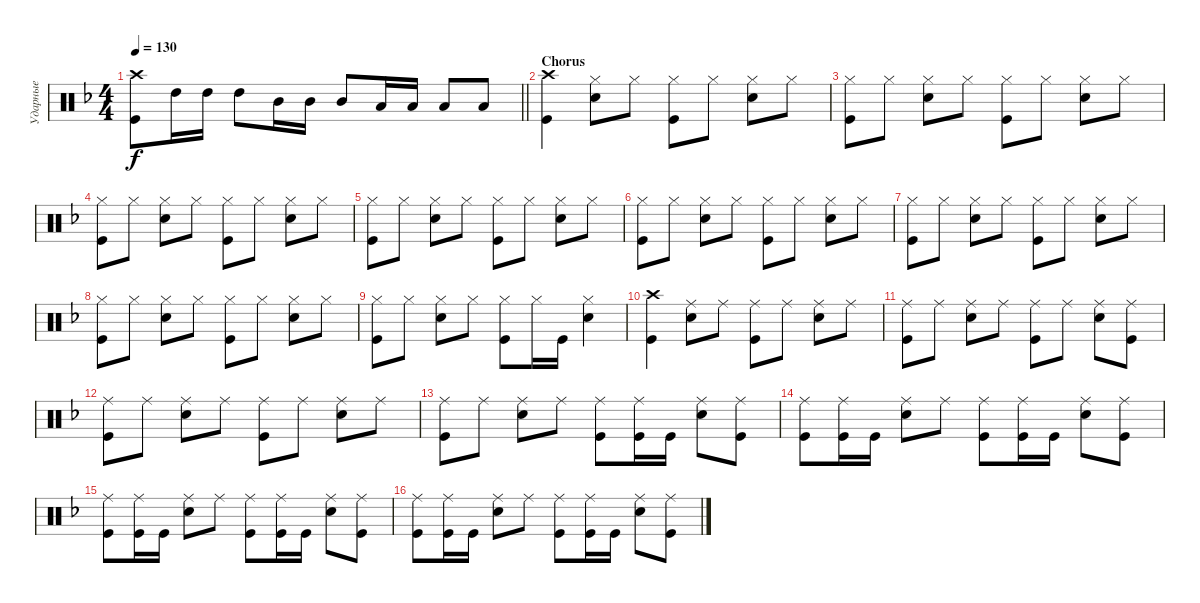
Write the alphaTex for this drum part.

\track ("Ударные" "Ударные") {instrument percussion}
\staff {score}
\articulation defaults
\ts (4 4)
\tempo 130
\clef neutral
\barLineRight lightlight
\ks dminor
("Kick (hit)" "Crash high (hit)").8{dy f} "High Tom (hit)".16 "High Tom (hit)".16 "High Tom (hit)".8 "Mid Tom (hit)".16 "Mid Tom (hit)".16 "Mid Tom (hit)".8 "Low Tom (hit)".16 "Low Tom (hit)".16 "Low Tom (hit)".8 "Low Tom (hit)".8 |
\section ("" "Chorus")
("Kick (hit)" "Crash high (hit)").4 ("Hi-Hat (closed)" "Snare (hit) 2").8 "Hi-Hat (closed)".8 ("Hi-Hat (closed)" "Kick (hit)").8 "Hi-Hat (closed)".8 ("Hi-Hat (closed)" "Snare (hit) 2").8 "Hi-Hat (closed)".8 |
("Kick (hit)" "Hi-Hat (closed)").8 "Hi-Hat (closed)".8 ("Hi-Hat (closed)" "Snare (hit) 2").8 "Hi-Hat (closed)".8 ("Hi-Hat (closed)" "Kick (hit)").8 "Hi-Hat (closed)".8 ("Hi-Hat (closed)" "Snare (hit) 2").8 "Hi-Hat (closed)".8 |
("Kick (hit)" "Hi-Hat (closed)").8 "Hi-Hat (closed)".8 ("Hi-Hat (closed)" "Snare (hit) 2").8 "Hi-Hat (closed)".8 ("Hi-Hat (closed)" "Kick (hit)").8 "Hi-Hat (closed)".8 ("Hi-Hat (closed)" "Snare (hit) 2").8 "Hi-Hat (closed)".8 |
("Kick (hit)" "Hi-Hat (closed)").8 "Hi-Hat (closed)".8 ("Hi-Hat (closed)" "Snare (hit) 2").8 "Hi-Hat (closed)".8 ("Hi-Hat (closed)" "Kick (hit)").8 "Hi-Hat (closed)".8 ("Hi-Hat (closed)" "Snare (hit) 2").8 "Hi-Hat (closed)".8 |
("Kick (hit)" "Hi-Hat (closed)").8 "Hi-Hat (closed)".8 ("Hi-Hat (closed)" "Snare (hit) 2").8 "Hi-Hat (closed)".8 ("Hi-Hat (closed)" "Kick (hit)").8 "Hi-Hat (closed)".8 ("Hi-Hat (closed)" "Snare (hit) 2").8 "Hi-Hat (closed)".8 |
("Kick (hit)" "Hi-Hat (closed)").8 "Hi-Hat (closed)".8 ("Hi-Hat (closed)" "Snare (hit) 2").8 "Hi-Hat (closed)".8 ("Hi-Hat (closed)" "Kick (hit)").8 "Hi-Hat (closed)".8 ("Hi-Hat (closed)" "Snare (hit) 2").8 "Hi-Hat (closed)".8 |
("Kick (hit)" "Hi-Hat (closed)").8 "Hi-Hat (closed)".8 ("Hi-Hat (closed)" "Snare (hit) 2").8 "Hi-Hat (closed)".8 ("Hi-Hat (closed)" "Kick (hit)").8 "Hi-Hat (closed)".8 ("Hi-Hat (closed)" "Snare (hit) 2").8 "Hi-Hat (closed)".8 |
("Kick (hit)" "Hi-Hat (closed)").8 "Hi-Hat (closed)".8 ("Hi-Hat (closed)" "Snare (hit) 2").8 "Hi-Hat (closed)".8 ("Hi-Hat (closed)" "Kick (hit)").8 "Hi-Hat (closed)".16 "Kick (hit)".16 ("Hi-Hat (closed)" "Snare (hit) 2").4 |
("Crash high (hit)" "Kick (hit)").4 ("Ride (middle)" "Snare (hit) 2").8 "Ride (middle)".8 ("Ride (middle)" "Kick (hit)").8 "Ride (middle)".8 ("Ride (middle)" "Snare (hit) 2").8 "Ride (middle)".8 |
("Ride (middle)" "Kick (hit)").8 "Ride (middle)".8 ("Ride (middle)" "Snare (hit) 2").8 "Ride (middle)".8 ("Ride (middle)" "Kick (hit)").8 "Ride (middle)".8 ("Ride (middle)" "Snare (hit) 2").8 ("Ride (middle)" "Kick (hit)").8 |
("Ride (middle)" "Kick (hit)").8 "Ride (middle)".8 ("Ride (middle)" "Snare (hit) 2").8 "Ride (middle)".8 ("Ride (middle)" "Kick (hit)").8 "Ride (middle)".8 ("Ride (middle)" "Snare (hit) 2").8 "Ride (middle)".8 |
("Ride (middle)" "Kick (hit)").8 "Ride (middle)".8 ("Ride (middle)" "Snare (hit) 2").8 "Ride (middle)".8 ("Ride (middle)" "Kick (hit)").8 ("Ride (middle)" "Kick (hit)").16 "Kick (hit)".16 ("Ride (middle)" "Snare (hit) 2").8 ("Ride (middle)" "Kick (hit)").8 |
("Ride (middle)" "Kick (hit)").8 ("Ride (middle)" "Kick (hit)").16 "Kick (hit)".16 ("Ride (middle)" "Snare (hit) 2").8 "Ride (middle)".8 ("Ride (middle)" "Kick (hit)").8 ("Ride (middle)" "Kick (hit)").16 "Kick (hit)".16 ("Ride (middle)" "Snare (hit) 2").8 ("Ride (middle)" "Kick (hit)").8 |
("Ride (middle)" "Kick (hit)").8 ("Ride (middle)" "Kick (hit)").16 "Kick (hit)".16 ("Ride (middle)" "Snare (hit) 2").8 "Ride (middle)".8 ("Ride (middle)" "Kick (hit)").8 ("Ride (middle)" "Kick (hit)").16 "Kick (hit)".16 ("Ride (middle)" "Snare (hit) 2").8 ("Ride (middle)" "Kick (hit)").8 |
("Ride (middle)" "Kick (hit)").8 ("Ride (middle)" "Kick (hit)").16 "Kick (hit)".16 ("Ride (middle)" "Snare (hit) 2").8 "Ride (middle)".8 ("Ride (middle)" "Kick (hit)").8 ("Ride (middle)" "Kick (hit)").16 "Kick (hit)".16 ("Ride (middle)" "Snare (hit) 2").8 ("Ride (middle)" "Kick (hit)").8
